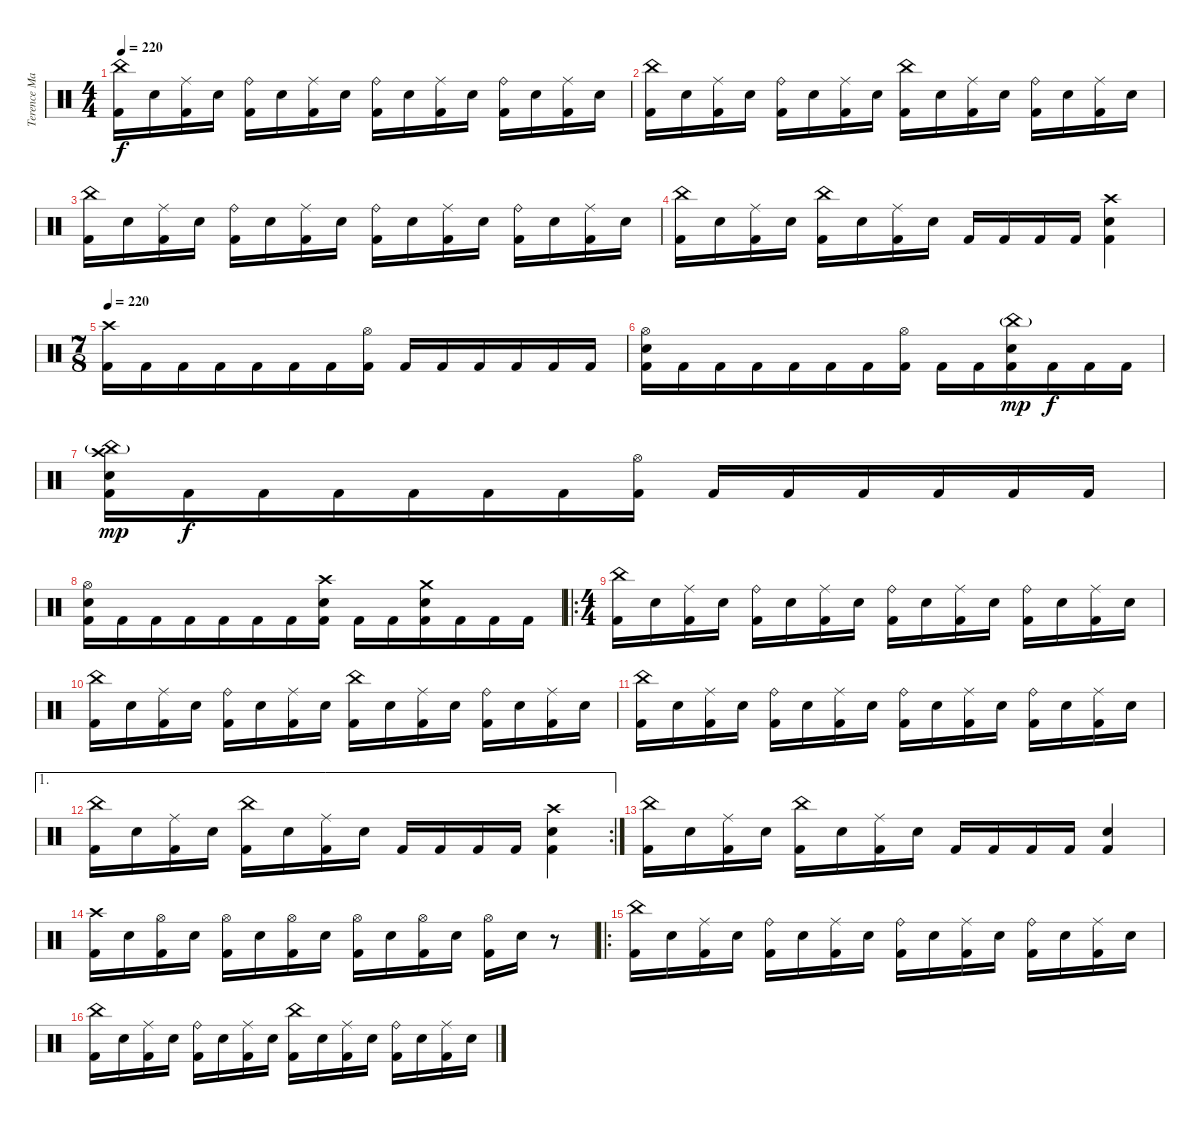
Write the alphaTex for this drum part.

\track ("Terence Manauis" "Terence Ma") {instrument percussion}
\staff {score}
\articulation defaults
\ts (4 4)
\tempo 220
\clef neutral
\ks c
("China (hit)" "Kick (hit) 2").16{dy f volume 12} "Electric Snare (hit)".16 ("Ride (middle)" "Kick (hit) 2").16 "Electric Snare (hit)".16 ("Ride (bell)" "Kick (hit) 2").16 "Electric Snare (hit)".16 ("Ride (middle)" "Kick (hit) 2").16 "Electric Snare (hit)".16 ("Ride (bell)" "Kick (hit) 2").16 "Electric Snare (hit)".16 ("Ride (middle)" "Kick (hit) 2").16 "Electric Snare (hit)".16 ("Ride (bell)" "Kick (hit) 2").16 "Electric Snare (hit)".16 ("Ride (middle)" "Kick (hit) 2").16 "Electric Snare (hit)".16 |
("China (hit)" "Kick (hit) 2").16 "Electric Snare (hit)".16 ("Ride (middle)" "Kick (hit) 2").16 "Electric Snare (hit)".16 ("Ride (bell)" "Kick (hit) 2").16 "Electric Snare (hit)".16 ("Ride (middle)" "Kick (hit) 2").16 "Electric Snare (hit)".16 ("China (hit)" "Kick (hit) 2").16 "Electric Snare (hit)".16 ("Ride (middle)" "Kick (hit) 2").16 "Electric Snare (hit)".16 ("Ride (bell)" "Kick (hit) 2").16 "Electric Snare (hit)".16 ("Ride (middle)" "Kick (hit) 2").16 "Electric Snare (hit)".16 |
("China (hit)" "Kick (hit) 2").16 "Electric Snare (hit)".16 ("Ride (middle)" "Kick (hit) 2").16 "Electric Snare (hit)".16 ("Ride (bell)" "Kick (hit) 2").16 "Electric Snare (hit)".16 ("Ride (middle)" "Kick (hit) 2").16 "Electric Snare (hit)".16 ("Ride (bell)" "Kick (hit) 2").16 "Electric Snare (hit)".16 ("Ride (middle)" "Kick (hit) 2").16 "Electric Snare (hit)".16 ("Ride (bell)" "Kick (hit) 2").16 "Electric Snare (hit)".16 ("Ride (middle)" "Kick (hit) 2").16 "Electric Snare (hit)".16 |
("China (hit)" "Kick (hit) 2").16 "Electric Snare (hit)".16 ("Ride (middle)" "Kick (hit) 2").16 "Electric Snare (hit)".16 ("China (hit)" "Kick (hit) 2").16 "Electric Snare (hit)".16 ("Ride (middle)" "Kick (hit) 2").16 "Electric Snare (hit)".16 "Kick (hit) 2".16 "Kick (hit) 2".16 "Kick (hit) 2".16 "Kick (hit) 2".16 ("Crash high (hit)" "Electric Snare (hit)" "Kick (hit) 2").4 |
\ts (7 8)
\tempo 220
("Crash high (hit)" "Kick (hit) 2").16{volume 14} "Kick (hit) 2".16 "Kick (hit) 2".16 "Kick (hit) 2".16 "Kick (hit) 2".16 "Kick (hit) 2".16 "Kick (hit) 2".16 ("Hi-Hat (open)" "Kick (hit) 2").16 "Kick (hit) 2".16 "Kick (hit) 2".16 "Kick (hit) 2".16 "Kick (hit) 2".16 "Kick (hit) 2".16 "Kick (hit) 2".16 |
("Hi-Hat (open)" "Electric Snare (hit)" "Kick (hit) 2").16 "Kick (hit) 2".16 "Kick (hit) 2".16 "Kick (hit) 2".16 "Kick (hit) 2".16 "Kick (hit) 2".16 "Kick (hit) 2".16 ("Hi-Hat (open)" "Kick (hit) 2").16 "Kick (hit) 2".16 "Kick (hit) 2".16 ("China (hit)"{g} "Electric Snare (hit)" "Kick (hit) 2").16{dy mp} "Kick (hit) 2".16{dy f} "Kick (hit) 2".16 "Kick (hit) 2".16 |
("Crash high (hit)" "China (hit)"{g} "Electric Snare (hit)" "Kick (hit) 2").16{dy mp} "Kick (hit) 2".16{dy f} "Kick (hit) 2".16 "Kick (hit) 2".16 "Kick (hit) 2".16 "Kick (hit) 2".16 "Kick (hit) 2".16 ("Hi-Hat (open)" "Kick (hit) 2").16 "Kick (hit) 2".16 "Kick (hit) 2".16 "Kick (hit) 2".16 "Kick (hit) 2".16 "Kick (hit) 2".16 "Kick (hit) 2".16 |
("Hi-Hat (open)" "Electric Snare (hit)" "Kick (hit) 2").16 "Kick (hit) 2".16 "Kick (hit) 2".16 "Kick (hit) 2".16 "Kick (hit) 2".16 "Kick (hit) 2".16 "Kick (hit) 2".16 ("Crash high (hit)" "Electric Snare (hit)" "Kick (hit) 2").16 "Kick (hit) 2".16 "Kick (hit) 2".16 ("Crash medium (hit)" "Electric Snare (hit)" "Kick (hit) 2").16 "Kick (hit) 2".16 "Kick (hit) 2".16 "Kick (hit) 2".16 |
\ro
\ts (4 4)
("China (hit)" "Kick (hit) 2").16{volume 12} "Electric Snare (hit)".16 ("Ride (middle)" "Kick (hit) 2").16 "Electric Snare (hit)".16 ("Ride (bell)" "Kick (hit) 2").16 "Electric Snare (hit)".16 ("Ride (middle)" "Kick (hit) 2").16 "Electric Snare (hit)".16 ("Ride (bell)" "Kick (hit) 2").16 "Electric Snare (hit)".16 ("Ride (middle)" "Kick (hit) 2").16 "Electric Snare (hit)".16 ("Ride (bell)" "Kick (hit) 2").16 "Electric Snare (hit)".16 ("Ride (middle)" "Kick (hit) 2").16 "Electric Snare (hit)".16 |
("China (hit)" "Kick (hit) 2").16 "Electric Snare (hit)".16 ("Ride (middle)" "Kick (hit) 2").16 "Electric Snare (hit)".16 ("Ride (bell)" "Kick (hit) 2").16 "Electric Snare (hit)".16 ("Ride (middle)" "Kick (hit) 2").16 "Electric Snare (hit)".16 ("China (hit)" "Kick (hit) 2").16 "Electric Snare (hit)".16 ("Ride (middle)" "Kick (hit) 2").16 "Electric Snare (hit)".16 ("Ride (bell)" "Kick (hit) 2").16 "Electric Snare (hit)".16 ("Ride (middle)" "Kick (hit) 2").16 "Electric Snare (hit)".16 |
("China (hit)" "Kick (hit) 2").16 "Electric Snare (hit)".16 ("Ride (middle)" "Kick (hit) 2").16 "Electric Snare (hit)".16 ("Ride (bell)" "Kick (hit) 2").16 "Electric Snare (hit)".16 ("Ride (middle)" "Kick (hit) 2").16 "Electric Snare (hit)".16 ("Ride (bell)" "Kick (hit) 2").16 "Electric Snare (hit)".16 ("Ride (middle)" "Kick (hit) 2").16 "Electric Snare (hit)".16 ("Ride (bell)" "Kick (hit) 2").16 "Electric Snare (hit)".16 ("Ride (middle)" "Kick (hit) 2").16 "Electric Snare (hit)".16 |
\ae 1
\rc 2
("China (hit)" "Kick (hit) 2").16 "Electric Snare (hit)".16 ("Ride (middle)" "Kick (hit) 2").16 "Electric Snare (hit)".16 ("China (hit)" "Kick (hit) 2").16 "Electric Snare (hit)".16 ("Ride (middle)" "Kick (hit) 2").16 "Electric Snare (hit)".16 "Kick (hit) 2".16 "Kick (hit) 2".16 "Kick (hit) 2".16 "Kick (hit) 2".16 ("Crash high (hit)" "Electric Snare (hit)" "Kick (hit) 2").4 |
("China (hit)" "Kick (hit) 2").16 "Electric Snare (hit)".16 ("Ride (middle)" "Kick (hit) 2").16 "Electric Snare (hit)".16 ("China (hit)" "Kick (hit) 2").16 "Electric Snare (hit)".16 ("Ride (middle)" "Kick (hit) 2").16 "Electric Snare (hit)".16 "Kick (hit) 2".16 "Kick (hit) 2".16 "Kick (hit) 2".16 "Kick (hit) 2".16 ("Electric Snare (hit)" "Kick (hit) 2").4 |
("Crash high (hit)" "Kick (hit) 2").16 "Electric Snare (hit)".16 ("Hi-Hat (open)" "Kick (hit) 2").16 "Electric Snare (hit)".16 ("Hi-Hat (open)" "Kick (hit) 2").16 "Electric Snare (hit)".16 ("Hi-Hat (open)" "Kick (hit) 2").16 "Electric Snare (hit)".16 ("Hi-Hat (open)" "Kick (hit) 2").16 "Electric Snare (hit)".16 ("Hi-Hat (open)" "Kick (hit) 2").16 "Electric Snare (hit)".16 ("Hi-Hat (open)" "Kick (hit) 2").16 "Electric Snare (hit)".16 r.8 |
\ro
("China (hit)" "Kick (hit) 2").16 "Electric Snare (hit)".16 ("Ride (middle)" "Kick (hit) 2").16 "Electric Snare (hit)".16 ("Ride (bell)" "Kick (hit) 2").16 "Electric Snare (hit)".16 ("Ride (middle)" "Kick (hit) 2").16 "Electric Snare (hit)".16 ("Ride (bell)" "Kick (hit) 2").16 "Electric Snare (hit)".16 ("Ride (middle)" "Kick (hit) 2").16 "Electric Snare (hit)".16 ("Ride (bell)" "Kick (hit) 2").16 "Electric Snare (hit)".16 ("Ride (middle)" "Kick (hit) 2").16 "Electric Snare (hit)".16 |
("China (hit)" "Kick (hit) 2").16 "Electric Snare (hit)".16 ("Ride (middle)" "Kick (hit) 2").16 "Electric Snare (hit)".16 ("Ride (bell)" "Kick (hit) 2").16 "Electric Snare (hit)".16 ("Ride (middle)" "Kick (hit) 2").16 "Electric Snare (hit)".16 ("China (hit)" "Kick (hit) 2").16 "Electric Snare (hit)".16 ("Ride (middle)" "Kick (hit) 2").16 "Electric Snare (hit)".16 ("Ride (bell)" "Kick (hit) 2").16 "Electric Snare (hit)".16 ("Ride (middle)" "Kick (hit) 2").16 "Electric Snare (hit)".16
